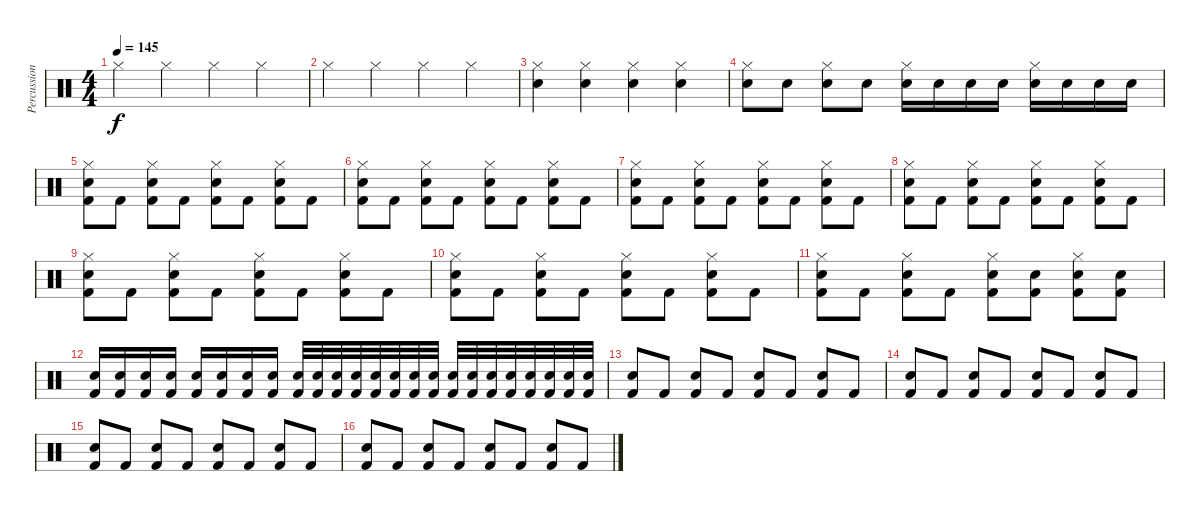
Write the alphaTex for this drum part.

\track ("Percussions" "Percussion") {instrument percussion}
\staff {score}
\articulation defaults
\ts (4 4)
\tempo 145
\clef neutral
\ks c "Hi-Hat (closed)".4{dy f} "Hi-Hat (closed)".4 "Hi-Hat (closed)".4 "Hi-Hat (closed)".4
|
"Hi-Hat (closed)".4 "Hi-Hat (closed)".4 "Hi-Hat (closed)".4 "Hi-Hat (closed)".4 |
("Snare (hit) 2" "Hi-Hat (closed)").4 ("Snare (hit) 2" "Hi-Hat (closed)").4 ("Snare (hit) 2" "Hi-Hat (closed)").4 ("Snare (hit) 2" "Hi-Hat (closed)").4 |
("Snare (hit) 2" "Hi-Hat (closed)").8 "Snare (hit) 2".8 ("Snare (hit) 2" "Hi-Hat (closed)").8 "Snare (hit) 2".8 ("Snare (hit) 2" "Hi-Hat (closed)").16 "Snare (hit) 2".16 "Snare (hit) 2".16 "Snare (hit) 2".16 ("Snare (hit) 2" "Hi-Hat (closed)").16 "Snare (hit) 2".16 "Snare (hit) 2".16 "Snare (hit) 2".16 |
("Kick (hit) 2" "Hi-Hat (closed)" "Snare (hit) 2").8 "Kick (hit) 2".8 ("Kick (hit) 2" "Hi-Hat (closed)" "Snare (hit) 2").8 "Kick (hit) 2".8 ("Kick (hit) 2" "Hi-Hat (closed)" "Snare (hit) 2").8 "Kick (hit) 2".8 ("Kick (hit) 2" "Hi-Hat (closed)" "Snare (hit) 2").8 "Kick (hit) 2".8 |
("Kick (hit) 2" "Hi-Hat (closed)" "Snare (hit) 2").8 "Kick (hit) 2".8 ("Kick (hit) 2" "Hi-Hat (closed)" "Snare (hit) 2").8 "Kick (hit) 2".8 ("Kick (hit) 2" "Hi-Hat (closed)" "Snare (hit) 2").8 "Kick (hit) 2".8 ("Kick (hit) 2" "Hi-Hat (closed)" "Snare (hit) 2").8 "Kick (hit) 2".8 |
("Kick (hit) 2" "Hi-Hat (closed)" "Snare (hit) 2").8 "Kick (hit) 2".8 ("Kick (hit) 2" "Hi-Hat (closed)" "Snare (hit) 2").8 "Kick (hit) 2".8 ("Kick (hit) 2" "Hi-Hat (closed)" "Snare (hit) 2").8 "Kick (hit) 2".8 ("Kick (hit) 2" "Hi-Hat (closed)" "Snare (hit) 2").8 "Kick (hit) 2".8 |
("Kick (hit) 2" "Hi-Hat (closed)" "Snare (hit) 2").8 "Kick (hit) 2".8 ("Kick (hit) 2" "Hi-Hat (closed)" "Snare (hit) 2").8 "Kick (hit) 2".8 ("Kick (hit) 2" "Hi-Hat (closed)" "Snare (hit) 2").8 "Kick (hit) 2".8 ("Kick (hit) 2" "Hi-Hat (closed)" "Snare (hit) 2").8 "Kick (hit) 2".8 |
("Kick (hit) 2" "Hi-Hat (closed)" "Snare (hit) 2").8 "Kick (hit) 2".8 ("Kick (hit) 2" "Hi-Hat (closed)" "Snare (hit) 2").8 "Kick (hit) 2".8 ("Kick (hit) 2" "Hi-Hat (closed)" "Snare (hit) 2").8 "Kick (hit) 2".8 ("Kick (hit) 2" "Hi-Hat (closed)" "Snare (hit) 2").8 "Kick (hit) 2".8 |
("Kick (hit) 2" "Hi-Hat (closed)" "Snare (hit) 2").8 "Kick (hit) 2".8 ("Kick (hit) 2" "Hi-Hat (closed)" "Snare (hit) 2").8 "Kick (hit) 2".8 ("Kick (hit) 2" "Hi-Hat (closed)" "Snare (hit) 2").8 "Kick (hit) 2".8 ("Kick (hit) 2" "Hi-Hat (closed)" "Snare (hit) 2").8 "Kick (hit) 2".8 |
("Kick (hit) 2" "Hi-Hat (closed)" "Snare (hit) 2").8 "Kick (hit) 2".8 ("Kick (hit) 2" "Hi-Hat (closed)" "Snare (hit) 2").8 "Kick (hit) 2".8 ("Kick (hit) 2" "Hi-Hat (closed)" "Snare (hit) 2").8 ("Kick (hit) 2" "Snare (hit) 2").8 ("Kick (hit) 2" "Hi-Hat (closed)" "Snare (hit) 2").8 ("Kick (hit) 2" "Snare (hit) 2").8 |
("Kick (hit) 2" "Snare (hit) 2").16 ("Kick (hit) 2" "Snare (hit) 2").16 ("Kick (hit) 2" "Snare (hit) 2").16 ("Kick (hit) 2" "Snare (hit) 2").16 ("Kick (hit) 2" "Snare (hit) 2").16 ("Kick (hit) 2" "Snare (hit) 2").16 ("Kick (hit) 2" "Snare (hit) 2").16 ("Kick (hit) 2" "Snare (hit) 2").16 ("Kick (hit) 2" "Snare (hit) 2").32 ("Kick (hit) 2" "Snare (hit) 2").32 ("Kick (hit) 2" "Snare (hit) 2").32 ("Kick (hit) 2" "Snare (hit) 2").32 ("Kick (hit) 2" "Snare (hit) 2").32 ("Kick (hit) 2" "Snare (hit) 2").32 ("Kick (hit) 2" "Snare (hit) 2").32 ("Kick (hit) 2" "Snare (hit) 2").32 ("Kick (hit) 2" "Snare (hit) 2").32 ("Kick (hit) 2" "Snare (hit) 2").32 ("Kick (hit) 2" "Snare (hit) 2").32 ("Kick (hit) 2" "Snare (hit) 2").32 ("Kick (hit) 2" "Snare (hit) 2").32 ("Kick (hit) 2" "Snare (hit) 2").32 ("Kick (hit) 2" "Snare (hit) 2").32 ("Kick (hit) 2" "Snare (hit) 2").32 |
("Kick (hit) 2" "Snare (hit) 2").8 "Kick (hit) 2".8 ("Kick (hit) 2" "Snare (hit) 2").8 "Kick (hit) 2".8 ("Kick (hit) 2" "Snare (hit) 2").8 "Kick (hit) 2".8 ("Kick (hit) 2" "Snare (hit) 2").8 "Kick (hit) 2".8 |
("Kick (hit) 2" "Snare (hit) 2").8 "Kick (hit) 2".8 ("Kick (hit) 2" "Snare (hit) 2").8 "Kick (hit) 2".8 ("Kick (hit) 2" "Snare (hit) 2").8 "Kick (hit) 2".8 ("Kick (hit) 2" "Snare (hit) 2").8 "Kick (hit) 2".8 |
("Kick (hit) 2" "Snare (hit) 2").8 "Kick (hit) 2".8 ("Kick (hit) 2" "Snare (hit) 2").8 "Kick (hit) 2".8 ("Kick (hit) 2" "Snare (hit) 2").8 "Kick (hit) 2".8 ("Kick (hit) 2" "Snare (hit) 2").8 "Kick (hit) 2".8 |
("Kick (hit) 2" "Snare (hit) 2").8 "Kick (hit) 2".8 ("Kick (hit) 2" "Snare (hit) 2").8 "Kick (hit) 2".8 ("Kick (hit) 2" "Snare (hit) 2").8 "Kick (hit) 2".8 ("Kick (hit) 2" "Snare (hit) 2").8 "Kick (hit) 2".8
